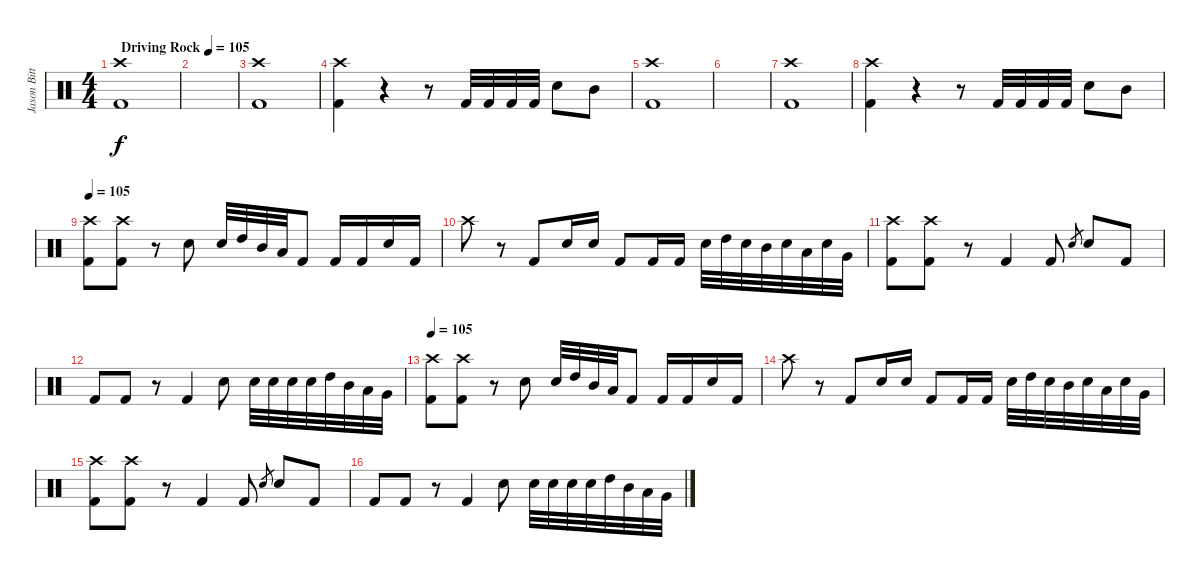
\track ("Jason Bittner" "Jason Bitt") {instrument percussion}
\staff {score}
\articulation defaults
\ts (4 4)
\tempo (105 "Driving Rock")
\clef neutral
\ks c
("Crash high (hit)" "Kick (hit) 2").1{dy f} |
|
("Crash high (hit)" "Kick (hit) 2").1 |
("Crash high (hit)" "Kick (hit) 2").4 r.4 r.8 "Kick (hit) 2".32 "Kick (hit) 2".32 "Kick (hit) 2".32 "Kick (hit) 2".32 "Electric Snare (hit)".8 "Mid Tom (hit)".8 |
("Crash high (hit)" "Kick (hit) 2").1 |
|
("Crash high (hit)" "Kick (hit) 2").1 |
("Crash high (hit)" "Kick (hit) 2").4 r.4 r.8 "Kick (hit) 2".32 "Kick (hit) 2".32 "Kick (hit) 2".32 "Kick (hit) 2".32 "Electric Snare (hit)".8 "Mid Tom (hit)".8 |
\tempo 105
("Crash high (hit)" "Kick (hit) 2").8 ("Crash high (hit)" "Kick (hit) 2").8 r.8 "Electric Snare (hit)".8 "Electric Snare (hit)".32 "High Tom (hit)".32 "Mid Tom (hit)".32 "Low Tom (hit)".32 "Kick (hit) 2".8 "Kick (hit) 2".16 "Kick (hit) 2".16 "Electric Snare (hit)".16 "Kick (hit) 2".16 |
"Crash high (hit)".8 r.8 "Kick (hit) 2".8 "Electric Snare (hit)".16 "Electric Snare (hit)".16 "Kick (hit) 2".8 "Kick (hit) 2".16 "Kick (hit) 2".16 "Electric Snare (hit)".32 "High Tom (hit)".32 "Electric Snare (hit)".32 "Mid Tom (hit)".32 "Electric Snare (hit)".32 "Low Tom (hit)".32 "Electric Snare (hit)".32 "Very Low Tom (hit)".32 |
("Crash high (hit)" "Kick (hit) 2").8 ("Crash high (hit)" "Kick (hit) 2").8 r.8 "Kick (hit) 2".4 "Kick (hit) 2".8 "Electric Snare (hit)".8{gr} "Electric Snare (hit)".8 "Kick (hit) 2".8 |
"Kick (hit) 2".8 "Kick (hit) 2".8 r.8 "Kick (hit) 2".4 "Electric Snare (hit)".8 "Electric Snare (hit)".32 "Electric Snare (hit)".32 "Electric Snare (hit)".32 "Electric Snare (hit)".32 "High Tom (hit)".32 "Mid Tom (hit)".32 "Low Tom (hit)".32 "Very Low Tom (hit)".32 |
\tempo 105
("Crash high (hit)" "Kick (hit) 2").8 ("Crash high (hit)" "Kick (hit) 2").8 r.8 "Electric Snare (hit)".8 "Electric Snare (hit)".32 "High Tom (hit)".32 "Mid Tom (hit)".32 "Low Tom (hit)".32 "Kick (hit) 2".8 "Kick (hit) 2".16 "Kick (hit) 2".16 "Electric Snare (hit)".16 "Kick (hit) 2".16 |
"Crash high (hit)".8 r.8 "Kick (hit) 2".8 "Electric Snare (hit)".16 "Electric Snare (hit)".16 "Kick (hit) 2".8 "Kick (hit) 2".16 "Kick (hit) 2".16 "Electric Snare (hit)".32 "High Tom (hit)".32 "Electric Snare (hit)".32 "Mid Tom (hit)".32 "Electric Snare (hit)".32 "Low Tom (hit)".32 "Electric Snare (hit)".32 "Very Low Tom (hit)".32 |
("Crash high (hit)" "Kick (hit) 2").8 ("Crash high (hit)" "Kick (hit) 2").8 r.8 "Kick (hit) 2".4 "Kick (hit) 2".8 "Electric Snare (hit)".8{gr} "Electric Snare (hit)".8 "Kick (hit) 2".8 |
"Kick (hit) 2".8 "Kick (hit) 2".8 r.8 "Kick (hit) 2".4 "Electric Snare (hit)".8 "Electric Snare (hit)".32 "Electric Snare (hit)".32 "Electric Snare (hit)".32 "Electric Snare (hit)".32 "High Tom (hit)".32 "Mid Tom (hit)".32 "Low Tom (hit)".32 "Very Low Tom (hit)".32
